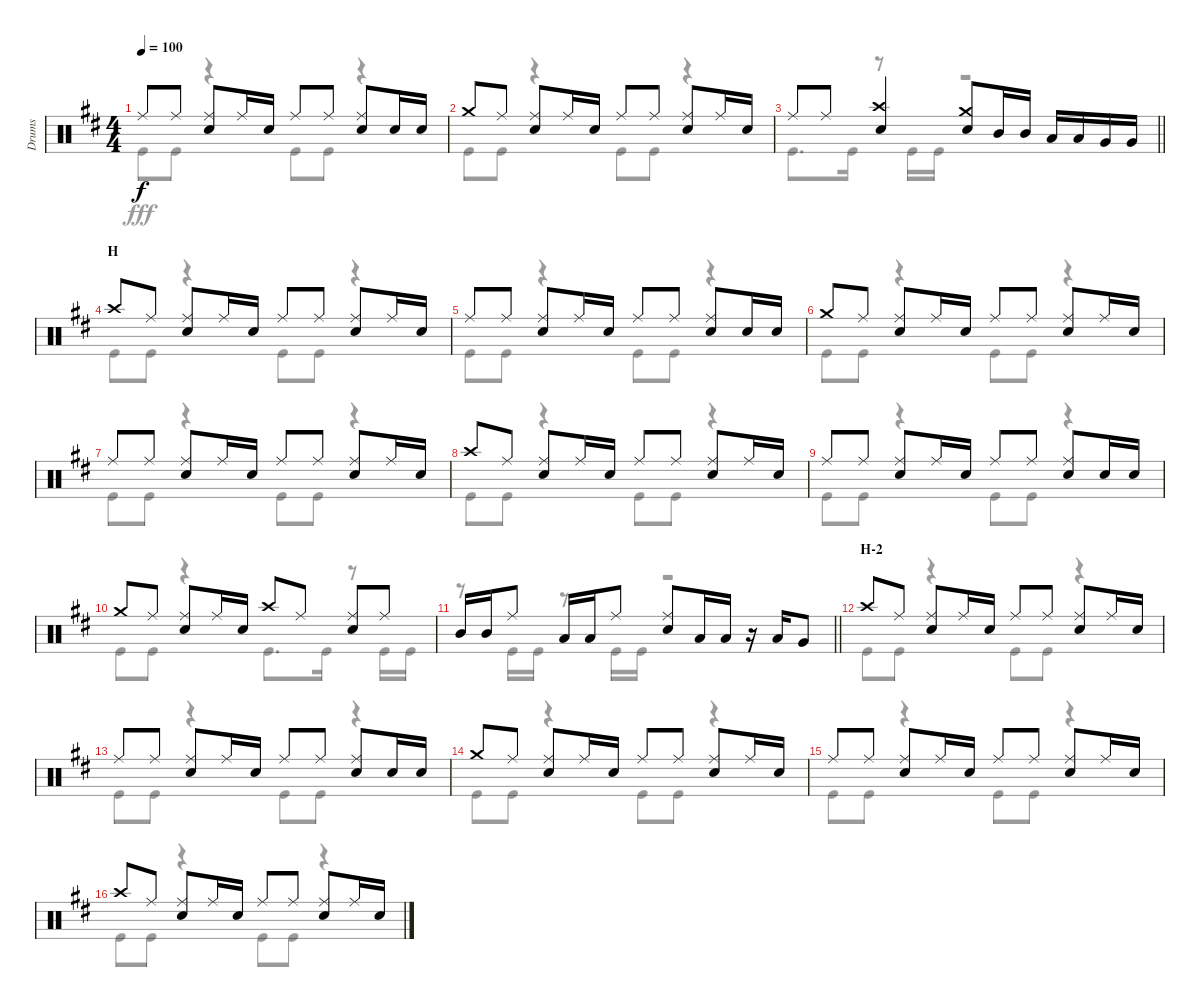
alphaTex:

\track ("Drums" "Drums") {instrument percussion}
\staff {score}
\articulation defaults
\voice
\ts (4 4)
\tempo 100
\clef neutral
\ks d "Ride (middle)".8{dy f} "Ride (middle)".8
("Ride (middle)" "Snare (hit) 2").8 "Ride (middle)".16 "Snare (hit) 2".16 "Ride (middle)".8 "Ride (middle)".8 ("Ride (middle)" "Snare (hit) 2").8 "Snare (hit) 2".16 "Snare (hit) 2".16 |
"Crash medium (hit)".8 "Ride (middle)".8 ("Ride (middle)" "Snare (hit) 2").8 "Ride (middle)".16 "Snare (hit) 2".16 "Ride (middle)".8 "Ride (middle)".8 ("Ride (middle)" "Snare (hit) 2").8 "Ride (middle)".16 "Snare (hit) 2".16 |
\barLineRight lightlight "Ride (middle)".8 "Ride (middle)".8
("Crash high (hit)" "Snare (hit) 2").4 ("Crash medium (hit)" "Snare (hit) 2").8 "Mid Tom (hit)".16 "Mid Tom (hit)".16 "Low Tom (hit)".16 "Low Tom (hit)".16 "Very Low Tom (hit)".16 "Very Low Tom (hit)".16 |
\section ("" "H")
"Crash high (hit)".8 "Ride (middle)".8 ("Ride (middle)" "Snare (hit) 2").8 "Ride (middle)".16 "Snare (hit) 2".16 "Ride (middle)".8 "Ride (middle)".8 ("Ride (middle)" "Snare (hit) 2").8 "Ride (middle)".16 "Snare (hit) 2".16 |
"Ride (middle)".8 "Ride (middle)".8 ("Ride (middle)" "Snare (hit) 2").8 "Ride (middle)".16 "Snare (hit) 2".16 "Ride (middle)".8 "Ride (middle)".8 ("Ride (middle)" "Snare (hit) 2").8 "Snare (hit) 2".16 "Snare (hit) 2".16 |
"Crash medium (hit)".8 "Ride (middle)".8 ("Ride (middle)" "Snare (hit) 2").8 "Ride (middle)".16 "Snare (hit) 2".16 "Ride (middle)".8 "Ride (middle)".8 ("Ride (middle)" "Snare (hit) 2").8 "Ride (middle)".16 "Snare (hit) 2".16 |
"Ride (middle)".8 "Ride (middle)".8 ("Ride (middle)" "Snare (hit) 2").8 "Ride (middle)".16 "Snare (hit) 2".16 "Ride (middle)".8 "Ride (middle)".8 ("Ride (middle)" "Snare (hit) 2").8 "Ride (middle)".16 "Snare (hit) 2".16 |
"Crash high (hit)".8 "Ride (middle)".8 ("Ride (middle)" "Snare (hit) 2").8 "Ride (middle)".16 "Snare (hit) 2".16 "Ride (middle)".8 "Ride (middle)".8 ("Ride (middle)" "Snare (hit) 2").8 "Ride (middle)".16 "Snare (hit) 2".16 |
"Ride (middle)".8 "Ride (middle)".8 ("Ride (middle)" "Snare (hit) 2").8 "Ride (middle)".16 "Snare (hit) 2".16 "Ride (middle)".8 "Ride (middle)".8 ("Ride (middle)" "Snare (hit) 2").8 "Snare (hit) 2".16 "Snare (hit) 2".16 |
"Crash medium (hit)".8 "Ride (middle)".8 ("Ride (middle)" "Snare (hit) 2").8 "Ride (middle)".16 "Snare (hit) 2".16 "Crash high (hit)".8 "Ride (middle)".8 ("Ride (middle)" "Snare (hit) 2").8 "Ride (middle)".8 |
\barLineRight lightlight "Mid Tom (hit)".16 "Mid Tom (hit)".16 "Ride (middle)".8 "Low Tom (hit)".16 "Low Tom (hit)".16 "Ride (middle)".8
("Ride (middle)" "Snare (hit) 2").8 "Low Tom (hit)".16 "Low Tom (hit)".16 r.16 "Low Tom (hit)".16 "Very Low Tom (hit)".8 |
\section ("" "H-2")
"Crash high (hit)".8 "Ride (middle)".8 ("Ride (middle)" "Snare (hit) 2").8 "Ride (middle)".16 "Snare (hit) 2".16 "Ride (middle)".8 "Ride (middle)".8 ("Ride (middle)" "Snare (hit) 2").8 "Ride (middle)".16 "Snare (hit) 2".16 |
"Ride (middle)".8 "Ride (middle)".8 ("Ride (middle)" "Snare (hit) 2").8 "Ride (middle)".16 "Snare (hit) 2".16 "Ride (middle)".8 "Ride (middle)".8 ("Ride (middle)" "Snare (hit) 2").8 "Snare (hit) 2".16 "Snare (hit) 2".16 |
"Crash medium (hit)".8 "Ride (middle)".8 ("Ride (middle)" "Snare (hit) 2").8 "Ride (middle)".16 "Snare (hit) 2".16 "Ride (middle)".8 "Ride (middle)".8 ("Ride (middle)" "Snare (hit) 2").8 "Ride (middle)".16 "Snare (hit) 2".16 |
"Ride (middle)".8 "Ride (middle)".8 ("Ride (middle)" "Snare (hit) 2").8 "Ride (middle)".16 "Snare (hit) 2".16 "Ride (middle)".8 "Ride (middle)".8 ("Ride (middle)" "Snare (hit) 2").8 "Ride (middle)".16 "Snare (hit) 2".16 |
"Crash high (hit)".8 "Ride (middle)".8 ("Ride (middle)" "Snare (hit) 2").8 "Ride (middle)".16 "Snare (hit) 2".16 "Ride (middle)".8 "Ride (middle)".8 ("Ride (middle)" "Snare (hit) 2").8 "Ride (middle)".16 "Snare (hit) 2".16
\voice
\clef neutral
\ottava regular
\simile none
\ks d "Kick (hit)".8{dy fff} "Kick (hit)".8
r.4 "Kick (hit)".8 "Kick (hit)".8 r.4 |
"Kick (hit)".8 "Kick (hit)".8 r.4 "Kick (hit)".8 "Kick (hit)".8 r.4 |
\barLineRight lightlight "Kick (hit)".8{d} "Kick (hit)".16
r.8 "Kick (hit)".16 "Kick (hit)".16 r.2 |
"Kick (hit)".8 "Kick (hit)".8 r.4 "Kick (hit)".8 "Kick (hit)".8 r.4 |
"Kick (hit)".8 "Kick (hit)".8 r.4 "Kick (hit)".8 "Kick (hit)".8 r.4 |
"Kick (hit)".8 "Kick (hit)".8 r.4 "Kick (hit)".8 "Kick (hit)".8 r.4 |
"Kick (hit)".8 "Kick (hit)".8 r.4 "Kick (hit)".8 "Kick (hit)".8 r.4 |
"Kick (hit)".8 "Kick (hit)".8 r.4 "Kick (hit)".8 "Kick (hit)".8 r.4 |
"Kick (hit)".8 "Kick (hit)".8 r.4 "Kick (hit)".8 "Kick (hit)".8 r.4 |
"Kick (hit)".8 "Kick (hit)".8 r.4 "Kick (hit)".8{d} "Kick (hit)".16 r.8 "Kick (hit)".16 "Kick (hit)".16 |
\barLineRight lightlight
r.8 "Kick (hit)".16 "Kick (hit)".16 r.8 "Kick (hit)".16 "Kick (hit)".16 r.2 |
"Kick (hit)".8 "Kick (hit)".8 r.4 "Kick (hit)".8 "Kick (hit)".8 r.4 |
"Kick (hit)".8 "Kick (hit)".8 r.4 "Kick (hit)".8 "Kick (hit)".8 r.4 |
"Kick (hit)".8 "Kick (hit)".8 r.4 "Kick (hit)".8 "Kick (hit)".8 r.4 |
"Kick (hit)".8 "Kick (hit)".8 r.4 "Kick (hit)".8 "Kick (hit)".8 r.4 |
"Kick (hit)".8 "Kick (hit)".8 r.4 "Kick (hit)".8 "Kick (hit)".8 r.4
